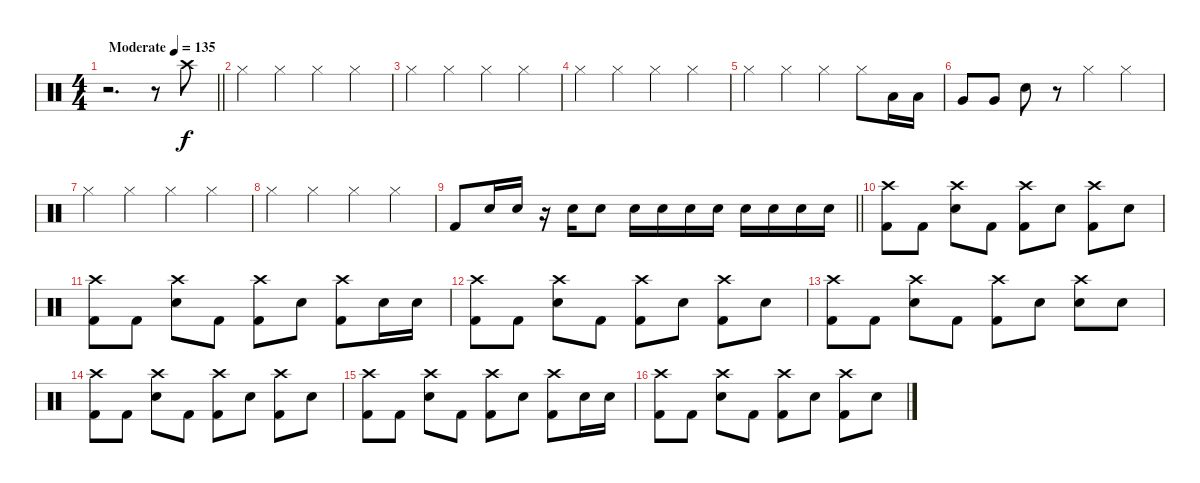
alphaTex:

\track "" {instrument percussion}
\staff {score}
\articulation defaults
\ts (4 4)
\tempo (135 "Moderate")
\clef neutral
\barLineRight lightlight
\ks c
r.2{d dy f} r.8 "Crash high (hit)".8 |
\section ("" "")
"Hi-Hat (closed)".4 "Hi-Hat (closed)".4 "Hi-Hat (closed)".4 "Hi-Hat (closed)".4 |
"Hi-Hat (closed)".4 "Hi-Hat (closed)".4 "Hi-Hat (closed)".4 "Hi-Hat (closed)".4 |
"Hi-Hat (closed)".4 "Hi-Hat (closed)".4 "Hi-Hat (closed)".4 "Hi-Hat (closed)".4 |
"Hi-Hat (closed)".4 "Hi-Hat (closed)".4 "Hi-Hat (closed)".4 "Hi-Hat (closed)".8 "Low Tom (hit)".16 "Low Tom (hit)".16 |
"Very Low Tom (hit)".8 "Very Low Tom (hit)".8 "Electric Snare (hit)".8 r.8 "Hi-Hat (closed)".4 "Hi-Hat (closed)".4 |
"Hi-Hat (closed)".4 "Hi-Hat (closed)".4 "Hi-Hat (closed)".4 "Hi-Hat (closed)".4 |
"Hi-Hat (closed)".4 "Hi-Hat (closed)".4 "Hi-Hat (closed)".4 "Hi-Hat (closed)".4 |
\barLineRight lightlight "Kick (hit) 2".8 "Electric Snare (hit)".16 "Electric Snare (hit)".16
r.16 "Electric Snare (hit)".16 "Electric Snare (hit)".8 "Electric Snare (hit)".16 "Electric Snare (hit)".16 "Electric Snare (hit)".16 "Electric Snare (hit)".16 "Electric Snare (hit)".16 "Electric Snare (hit)".16 "Electric Snare (hit)".16 "Electric Snare (hit)".16 |
\section ("" "")
("Crash high (hit)" "Kick (hit) 2").8 "Kick (hit) 2".8 ("Crash high (hit)" "Electric Snare (hit)").8 "Kick (hit) 2".8 ("Crash high (hit)" "Kick (hit) 2").8 "Electric Snare (hit)".8 ("Crash high (hit)" "Kick (hit) 2").8 "Electric Snare (hit)".8 |
("Crash high (hit)" "Kick (hit) 2").8 "Kick (hit) 2".8 ("Crash high (hit)" "Electric Snare (hit)").8 "Kick (hit) 2".8 ("Crash high (hit)" "Kick (hit) 2").8 "Electric Snare (hit)".8 ("Crash high (hit)" "Kick (hit) 2").8 "Electric Snare (hit)".16 "Electric Snare (hit)".16 |
("Crash high (hit)" "Kick (hit) 2").8 "Kick (hit) 2".8 ("Crash high (hit)" "Electric Snare (hit)").8 "Kick (hit) 2".8 ("Crash high (hit)" "Kick (hit) 2").8 "Electric Snare (hit)".8 ("Crash high (hit)" "Kick (hit) 2").8 "Electric Snare (hit)".8 |
("Crash high (hit)" "Kick (hit) 2").8 "Kick (hit) 2".8 ("Crash high (hit)" "Electric Snare (hit)").8 "Kick (hit) 2".8 ("Crash high (hit)" "Kick (hit) 2").8 "Electric Snare (hit)".8 ("Crash high (hit)" "Electric Snare (hit)").8 "Electric Snare (hit)".8 |
("Crash high (hit)" "Kick (hit) 2").8 "Kick (hit) 2".8 ("Crash high (hit)" "Electric Snare (hit)").8 "Kick (hit) 2".8 ("Crash high (hit)" "Kick (hit) 2").8 "Electric Snare (hit)".8 ("Crash high (hit)" "Kick (hit) 2").8 "Electric Snare (hit)".8 |
("Crash high (hit)" "Kick (hit) 2").8 "Kick (hit) 2".8 ("Crash high (hit)" "Electric Snare (hit)").8 "Kick (hit) 2".8 ("Crash high (hit)" "Kick (hit) 2").8 "Electric Snare (hit)".8 ("Crash high (hit)" "Kick (hit) 2").8 "Electric Snare (hit)".16 "Electric Snare (hit)".16 |
("Crash high (hit)" "Kick (hit) 2").8 "Kick (hit) 2".8 ("Crash high (hit)" "Electric Snare (hit)").8 "Kick (hit) 2".8 ("Crash high (hit)" "Kick (hit) 2").8 "Electric Snare (hit)".8 ("Crash high (hit)" "Kick (hit) 2").8 "Electric Snare (hit)".8
